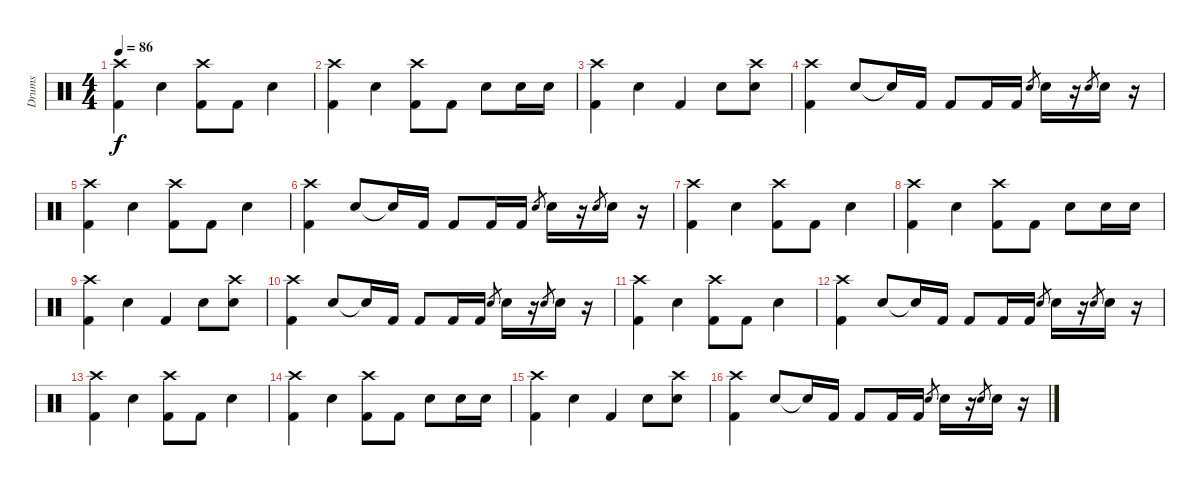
\track ("Drums" "Drums") {instrument percussion}
\staff {score}
\articulation defaults
\ts (4 4)
\tempo 86
\clef neutral
\ks c
("Crash high (hit)" "Kick (hit) 2").4{dy f} "Electric Snare (hit)".4 ("Crash high (hit)" "Kick (hit) 2").8 "Kick (hit) 2".8 "Electric Snare (hit)".4 |
("Crash high (hit)" "Kick (hit) 2").4 "Electric Snare (hit)".4 ("Crash high (hit)" "Kick (hit) 2").8 "Kick (hit) 2".8 "Electric Snare (hit)".8 "Electric Snare (hit)".16 "Electric Snare (hit)".16 |
("Crash high (hit)" "Kick (hit) 2").4 "Electric Snare (hit)".4 "Kick (hit) 2".4 "Electric Snare (hit)".8 ("Crash high (hit)" "Electric Snare (hit)").8 |
("Crash high (hit)" "Kick (hit) 2").4 "Electric Snare (hit)".8 "Snare (hit)"{t}.16 "Kick (hit) 2".16 "Kick (hit) 2".8 "Kick (hit) 2".16 "Kick (hit) 2".16 "Electric Snare (hit)".8{gr} "Electric Snare (hit)".16 r.16 "Electric Snare (hit)".8{gr} "Electric Snare (hit)".16 r.16 |
("Crash high (hit)" "Kick (hit) 2").4 "Electric Snare (hit)".4 ("Crash high (hit)" "Kick (hit) 2").8 "Kick (hit) 2".8 "Electric Snare (hit)".4 |
("Crash high (hit)" "Kick (hit) 2").4 "Electric Snare (hit)".8 "Snare (hit)"{t}.16 "Kick (hit) 2".16 "Kick (hit) 2".8 "Kick (hit) 2".16 "Kick (hit) 2".16 "Electric Snare (hit)".8{gr} "Electric Snare (hit)".16 r.16 "Electric Snare (hit)".8{gr} "Electric Snare (hit)".16 r.16 |
("Crash high (hit)" "Kick (hit) 2").4 "Electric Snare (hit)".4 ("Crash high (hit)" "Kick (hit) 2").8 "Kick (hit) 2".8 "Electric Snare (hit)".4 |
("Crash high (hit)" "Kick (hit) 2").4 "Electric Snare (hit)".4 ("Crash high (hit)" "Kick (hit) 2").8 "Kick (hit) 2".8 "Electric Snare (hit)".8 "Electric Snare (hit)".16 "Electric Snare (hit)".16 |
("Crash high (hit)" "Kick (hit) 2").4 "Electric Snare (hit)".4 "Kick (hit) 2".4 "Electric Snare (hit)".8 ("Crash high (hit)" "Electric Snare (hit)").8 |
("Crash high (hit)" "Kick (hit) 2").4 "Electric Snare (hit)".8 "Snare (hit)"{t}.16 "Kick (hit) 2".16 "Kick (hit) 2".8 "Kick (hit) 2".16 "Kick (hit) 2".16 "Electric Snare (hit)".8{gr} "Electric Snare (hit)".16 r.16 "Electric Snare (hit)".8{gr} "Electric Snare (hit)".16 r.16 |
("Crash high (hit)" "Kick (hit) 2").4 "Electric Snare (hit)".4 ("Crash high (hit)" "Kick (hit) 2").8 "Kick (hit) 2".8 "Electric Snare (hit)".4 |
("Crash high (hit)" "Kick (hit) 2").4 "Electric Snare (hit)".8 "Snare (hit)"{t}.16 "Kick (hit) 2".16 "Kick (hit) 2".8 "Kick (hit) 2".16 "Kick (hit) 2".16 "Electric Snare (hit)".8{gr} "Electric Snare (hit)".16 r.16 "Electric Snare (hit)".8{gr} "Electric Snare (hit)".16 r.16 |
("Crash high (hit)" "Kick (hit) 2").4 "Electric Snare (hit)".4 ("Crash high (hit)" "Kick (hit) 2").8 "Kick (hit) 2".8 "Electric Snare (hit)".4 |
("Crash high (hit)" "Kick (hit) 2").4 "Electric Snare (hit)".4 ("Crash high (hit)" "Kick (hit) 2").8 "Kick (hit) 2".8 "Electric Snare (hit)".8 "Electric Snare (hit)".16 "Electric Snare (hit)".16 |
("Crash high (hit)" "Kick (hit) 2").4 "Electric Snare (hit)".4 "Kick (hit) 2".4 "Electric Snare (hit)".8 ("Crash high (hit)" "Electric Snare (hit)").8 |
("Crash high (hit)" "Kick (hit) 2").4 "Electric Snare (hit)".8 "Snare (hit)"{t}.16 "Kick (hit) 2".16 "Kick (hit) 2".8 "Kick (hit) 2".16 "Kick (hit) 2".16 "Electric Snare (hit)".8{gr} "Electric Snare (hit)".16 r.16 "Electric Snare (hit)".8{gr} "Electric Snare (hit)".16 r.16
